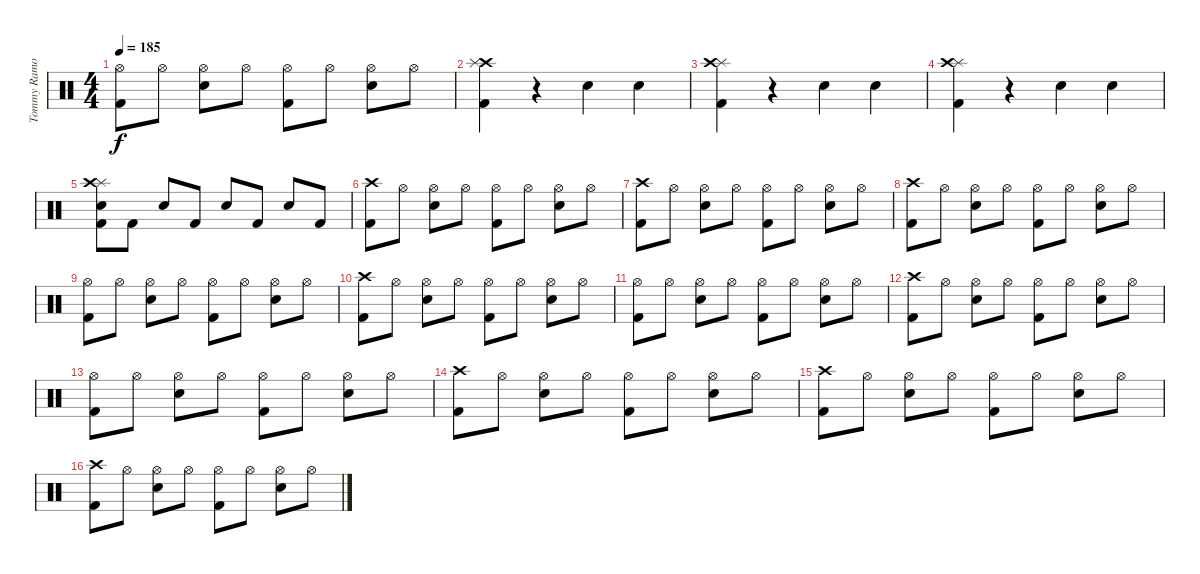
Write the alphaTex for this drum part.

\track ("Tommy Ramone" "Tommy Ramo") {instrument percussion}
\staff {score}
\articulation defaults
\ts (4 4)
\tempo 185
\clef neutral
\ks c
("Kick (hit) 2" "Hi-Hat (open)").8{dy f} "Hi-Hat (open)".8 ("Snare (hit) 2" "Hi-Hat (open)").8 "Hi-Hat (open)".8 ("Kick (hit) 2" "Hi-Hat (open)").8 "Hi-Hat (open)".8 ("Snare (hit) 2" "Hi-Hat (open)").8 "Hi-Hat (open)".8 |
("Kick (hit) 2" "Crash high (hit)" "Splash (hit)").4 r.4 "Snare (hit) 2".4 "Snare (hit) 2".4 |
("Kick (hit) 2" "Splash (hit)" "Crash high (hit)").4 r.4 "Snare (hit) 2".4 "Snare (hit) 2".4 |
("Splash (hit)" "Crash high (hit)" "Kick (hit) 2").4 r.4 "Snare (hit) 2".4 "Snare (hit) 2".4 |
("Snare (hit) 2" "Kick (hit) 2" "Splash (hit)" "Crash high (hit)").8 "Kick (hit) 2".8 "Snare (hit) 2".8 "Kick (hit) 2".8 "Snare (hit) 2".8 "Kick (hit) 2".8 "Snare (hit) 2".8 "Kick (hit) 2".8 |
("Crash high (hit)" "Kick (hit) 2").8 "Hi-Hat (open)".8 ("Snare (hit) 2" "Hi-Hat (open)").8 "Hi-Hat (open)".8 ("Kick (hit) 2" "Hi-Hat (open)").8 "Hi-Hat (open)".8 ("Snare (hit) 2" "Hi-Hat (open)").8 "Hi-Hat (open)".8 |
("Crash high (hit)" "Kick (hit) 2").8 "Hi-Hat (open)".8 ("Snare (hit) 2" "Hi-Hat (open)").8 "Hi-Hat (open)".8 ("Kick (hit) 2" "Hi-Hat (open)").8 "Hi-Hat (open)".8 ("Snare (hit) 2" "Hi-Hat (open)").8 "Hi-Hat (open)".8 |
("Crash high (hit)" "Kick (hit) 2").8 "Hi-Hat (open)".8 ("Snare (hit) 2" "Hi-Hat (open)").8 "Hi-Hat (open)".8 ("Kick (hit) 2" "Hi-Hat (open)").8 "Hi-Hat (open)".8 ("Snare (hit) 2" "Hi-Hat (open)").8 "Hi-Hat (open)".8 |
("Hi-Hat (open)" "Kick (hit) 2").8 "Hi-Hat (open)".8 ("Snare (hit) 2" "Hi-Hat (open)").8 "Hi-Hat (open)".8 ("Kick (hit) 2" "Hi-Hat (open)").8 "Hi-Hat (open)".8 ("Snare (hit) 2" "Hi-Hat (open)").8 "Hi-Hat (open)".8 |
("Crash high (hit)" "Kick (hit) 2").8 "Hi-Hat (open)".8 ("Snare (hit) 2" "Hi-Hat (open)").8 "Hi-Hat (open)".8 ("Kick (hit) 2" "Hi-Hat (open)").8 "Hi-Hat (open)".8 ("Snare (hit) 2" "Hi-Hat (open)").8 "Hi-Hat (open)".8 |
("Hi-Hat (open)" "Kick (hit) 2").8 "Hi-Hat (open)".8 ("Snare (hit) 2" "Hi-Hat (open)").8 "Hi-Hat (open)".8 ("Kick (hit) 2" "Hi-Hat (open)").8 "Hi-Hat (open)".8 ("Snare (hit) 2" "Hi-Hat (open)").8 "Hi-Hat (open)".8 |
("Crash high (hit)" "Kick (hit) 2").8 "Hi-Hat (open)".8 ("Snare (hit) 2" "Hi-Hat (open)").8 "Hi-Hat (open)".8 ("Kick (hit) 2" "Hi-Hat (open)").8 "Hi-Hat (open)".8 ("Snare (hit) 2" "Hi-Hat (open)").8 "Hi-Hat (open)".8 |
("Hi-Hat (open)" "Kick (hit) 2").8 "Hi-Hat (open)".8 ("Snare (hit) 2" "Hi-Hat (open)").8 "Hi-Hat (open)".8 ("Kick (hit) 2" "Hi-Hat (open)").8 "Hi-Hat (open)".8 ("Snare (hit) 2" "Hi-Hat (open)").8 "Hi-Hat (open)".8 |
("Crash high (hit)" "Kick (hit) 2").8 "Hi-Hat (open)".8 ("Snare (hit) 2" "Hi-Hat (open)").8 "Hi-Hat (open)".8 ("Kick (hit) 2" "Hi-Hat (open)").8 "Hi-Hat (open)".8 ("Snare (hit) 2" "Hi-Hat (open)").8 "Hi-Hat (open)".8 |
("Crash high (hit)" "Kick (hit) 2").8 "Hi-Hat (open)".8 ("Snare (hit) 2" "Hi-Hat (open)").8 "Hi-Hat (open)".8 ("Kick (hit) 2" "Hi-Hat (open)").8 "Hi-Hat (open)".8 ("Snare (hit) 2" "Hi-Hat (open)").8 "Hi-Hat (open)".8 |
("Crash high (hit)" "Kick (hit) 2").8 "Hi-Hat (open)".8 ("Snare (hit) 2" "Hi-Hat (open)").8 "Hi-Hat (open)".8 ("Kick (hit) 2" "Hi-Hat (open)").8 "Hi-Hat (open)".8 ("Snare (hit) 2" "Hi-Hat (open)").8 "Hi-Hat (open)".8
